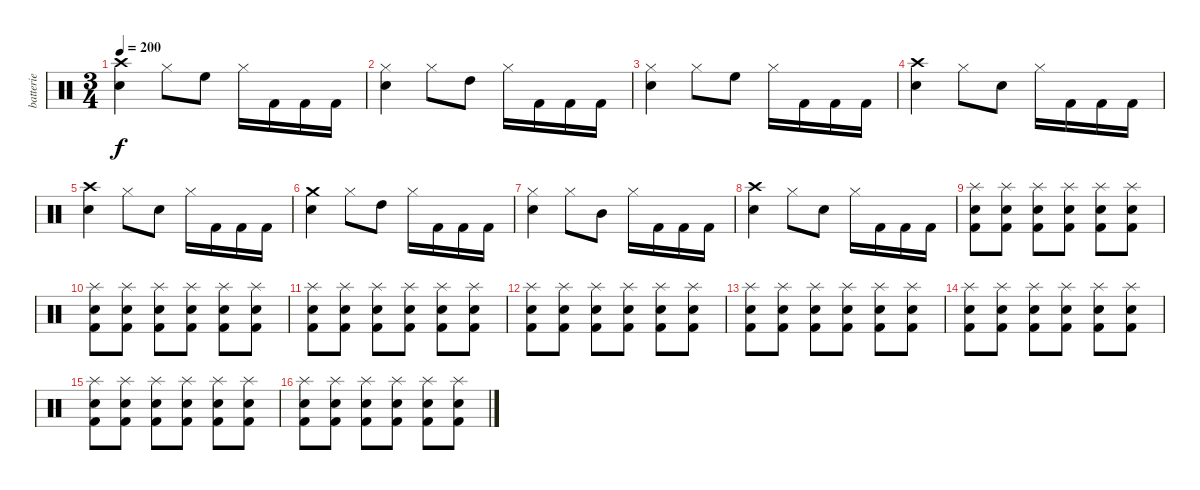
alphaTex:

\track ("batterie" "batterie") {instrument percussion}
\staff {score}
\articulation defaults
\ts (3 4)
\tempo 200
\clef neutral
\ks c
("Electric Snare (hit)" "Crash high (hit)").4{dy f} "Hi-Hat (closed)".8 "High Floor Tom (hit)".8 "Hi-Hat (closed)".16 "Kick (hit) 2".16 "Kick (hit) 2".16 "Kick (hit) 2".16 |
("Electric Snare (hit)" "Hi-Hat (closed)").4 "Hi-Hat (closed)".8 "High Tom (hit)".8 "Hi-Hat (closed)".16 "Kick (hit) 2".16 "Kick (hit) 2".16 "Kick (hit) 2".16 |
("Electric Snare (hit)" "Hi-Hat (closed)").4 "Hi-Hat (closed)".8 "High Floor Tom (hit)".8 "Hi-Hat (closed)".16 "Kick (hit) 2".16 "Kick (hit) 2".16 "Kick (hit) 2".16 |
("Electric Snare (hit)" "Crash high (hit)").4 "Hi-Hat (closed)".8 "Electric Snare (hit)".8 "Hi-Hat (closed)".16 "Kick (hit) 2".16 "Kick (hit) 2".16 "Kick (hit) 2".16 |
("Electric Snare (hit)" "Crash high (hit)").4 "Hi-Hat (closed)".8 "Electric Snare (hit)".8 "Hi-Hat (closed)".16 "Kick (hit) 2".16 "Kick (hit) 2".16 "Kick (hit) 2".16 |
("Electric Snare (hit)" "Crash medium (hit)").4 "Hi-Hat (closed)".8 "High Tom (hit)".8 "Hi-Hat (closed)".16 "Kick (hit) 2".16 "Kick (hit) 2".16 "Kick (hit) 2".16 |
("Electric Snare (hit)" "Hi-Hat (closed)").4 "Hi-Hat (closed)".8 "Mid Tom (hit)".8 "Hi-Hat (closed)".16 "Kick (hit) 2".16 "Kick (hit) 2".16 "Kick (hit) 2".16 |
("Electric Snare (hit)" "Crash high (hit)").4 "Hi-Hat (closed)".8 "Electric Snare (hit)".8 "Hi-Hat (closed)".16 "Kick (hit) 2".16 "Kick (hit) 2".16 "Kick (hit) 2".16 |
("Kick (hit) 2" "Electric Snare (hit)" "Splash (hit)").8 ("Kick (hit) 2" "Electric Snare (hit)" "Splash (hit)").8 ("Kick (hit) 2" "Electric Snare (hit)" "Splash (hit)").8 ("Kick (hit) 2" "Electric Snare (hit)" "Splash (hit)").8 ("Kick (hit) 2" "Electric Snare (hit)" "Splash (hit)").8 ("Kick (hit) 2" "Electric Snare (hit)" "Splash (hit)").8 |
("Kick (hit) 2" "Electric Snare (hit)" "Splash (hit)").8 ("Kick (hit) 2" "Electric Snare (hit)" "Splash (hit)").8 ("Kick (hit) 2" "Electric Snare (hit)" "Splash (hit)").8 ("Kick (hit) 2" "Electric Snare (hit)" "Splash (hit)").8 ("Kick (hit) 2" "Electric Snare (hit)" "Splash (hit)").8 ("Kick (hit) 2" "Electric Snare (hit)" "Splash (hit)").8 |
("Kick (hit) 2" "Electric Snare (hit)" "Splash (hit)").8 ("Kick (hit) 2" "Electric Snare (hit)" "Splash (hit)").8 ("Kick (hit) 2" "Electric Snare (hit)" "Splash (hit)").8 ("Kick (hit) 2" "Electric Snare (hit)" "Splash (hit)").8 ("Kick (hit) 2" "Electric Snare (hit)" "Splash (hit)").8 ("Kick (hit) 2" "Electric Snare (hit)" "Splash (hit)").8 |
("Kick (hit) 2" "Electric Snare (hit)" "Splash (hit)").8 ("Kick (hit) 2" "Electric Snare (hit)" "Splash (hit)").8 ("Kick (hit) 2" "Electric Snare (hit)" "Splash (hit)").8 ("Kick (hit) 2" "Electric Snare (hit)" "Splash (hit)").8 ("Kick (hit) 2" "Electric Snare (hit)" "Splash (hit)").8 ("Kick (hit) 2" "Electric Snare (hit)" "Splash (hit)").8 |
("Kick (hit) 2" "Electric Snare (hit)" "Splash (hit)").8 ("Kick (hit) 2" "Electric Snare (hit)" "Splash (hit)").8 ("Kick (hit) 2" "Electric Snare (hit)" "Splash (hit)").8 ("Kick (hit) 2" "Electric Snare (hit)" "Splash (hit)").8 ("Kick (hit) 2" "Electric Snare (hit)" "Splash (hit)").8 ("Kick (hit) 2" "Electric Snare (hit)" "Splash (hit)").8 |
("Kick (hit) 2" "Electric Snare (hit)" "Splash (hit)").8 ("Kick (hit) 2" "Electric Snare (hit)" "Splash (hit)").8 ("Kick (hit) 2" "Electric Snare (hit)" "Splash (hit)").8 ("Kick (hit) 2" "Electric Snare (hit)" "Splash (hit)").8 ("Kick (hit) 2" "Electric Snare (hit)" "Splash (hit)").8 ("Kick (hit) 2" "Electric Snare (hit)" "Splash (hit)").8 |
("Kick (hit) 2" "Electric Snare (hit)" "Splash (hit)").8 ("Kick (hit) 2" "Electric Snare (hit)" "Splash (hit)").8 ("Kick (hit) 2" "Electric Snare (hit)" "Splash (hit)").8 ("Kick (hit) 2" "Electric Snare (hit)" "Splash (hit)").8 ("Kick (hit) 2" "Electric Snare (hit)" "Splash (hit)").8 ("Kick (hit) 2" "Electric Snare (hit)" "Splash (hit)").8 |
("Kick (hit) 2" "Electric Snare (hit)" "Splash (hit)").8 ("Kick (hit) 2" "Electric Snare (hit)" "Splash (hit)").8 ("Kick (hit) 2" "Electric Snare (hit)" "Splash (hit)").8 ("Kick (hit) 2" "Electric Snare (hit)" "Splash (hit)").8 ("Kick (hit) 2" "Electric Snare (hit)" "Splash (hit)").8 ("Kick (hit) 2" "Electric Snare (hit)" "Splash (hit)").8
